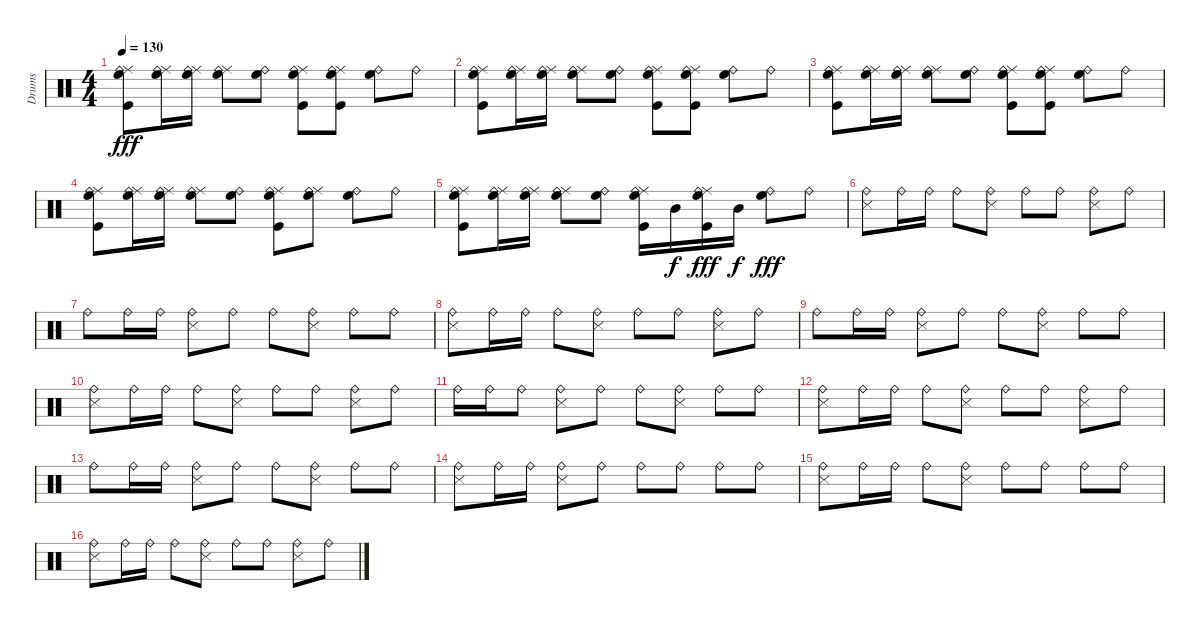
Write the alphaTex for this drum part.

\track ("Drums" "Drums") {instrument percussion}
\staff {score}
\articulation defaults
\ts (4 4)
\tempo 130
\clef neutral
\ks c
("Ride (middle)" "High Floor Tom (hit)" "Ride (bell)" "Kick (hit)").8{dy fff} ("Ride (middle)" "High Floor Tom (hit)" "Ride (bell)").16 ("Ride (middle)" "High Floor Tom (hit)" "Ride (bell)").16 ("Ride (middle)" "High Floor Tom (hit)" "Ride (bell)").8 ("High Floor Tom (hit)" "Ride (bell)").8 ("Ride (middle)" "High Floor Tom (hit)" "Ride (bell)" "Kick (hit)").8 ("Ride (middle)" "High Floor Tom (hit)" "Ride (bell)" "Kick (hit)").8 ("High Floor Tom (hit)" "Ride (bell)").8 "Ride (bell)".8 |
("Ride (middle)" "High Floor Tom (hit)" "Ride (bell)" "Kick (hit)").8 ("Ride (middle)" "High Floor Tom (hit)" "Ride (bell)").16 ("Ride (middle)" "High Floor Tom (hit)" "Ride (bell)").16 ("Ride (middle)" "High Floor Tom (hit)" "Ride (bell)").8 ("High Floor Tom (hit)" "Ride (bell)").8 ("Ride (middle)" "High Floor Tom (hit)" "Ride (bell)" "Kick (hit)").8 ("Ride (middle)" "High Floor Tom (hit)" "Ride (bell)" "Kick (hit)").8 ("High Floor Tom (hit)" "Ride (bell)").8 "Ride (bell)".8 |
("Ride (middle)" "High Floor Tom (hit)" "Ride (bell)" "Kick (hit)").8 ("Ride (middle)" "High Floor Tom (hit)" "Ride (bell)").16 ("Ride (middle)" "High Floor Tom (hit)" "Ride (bell)").16 ("Ride (middle)" "High Floor Tom (hit)" "Ride (bell)").8 ("High Floor Tom (hit)" "Ride (bell)").8 ("Ride (middle)" "High Floor Tom (hit)" "Ride (bell)" "Kick (hit)").8 ("Ride (middle)" "High Floor Tom (hit)" "Ride (bell)" "Kick (hit)").8 ("High Floor Tom (hit)" "Ride (bell)").8 "Ride (bell)".8 |
("Ride (middle)" "High Floor Tom (hit)" "Ride (bell)" "Kick (hit)").8 ("Ride (middle)" "High Floor Tom (hit)" "Ride (bell)").16 ("Ride (middle)" "High Floor Tom (hit)" "Ride (bell)").16 ("Ride (middle)" "High Floor Tom (hit)" "Ride (bell)").8 ("High Floor Tom (hit)" "Ride (bell)").8 ("Ride (middle)" "High Floor Tom (hit)" "Ride (bell)" "Kick (hit)").8 ("Ride (middle)" "High Floor Tom (hit)" "Ride (bell)").8 ("High Floor Tom (hit)" "Ride (bell)").8 "Ride (bell)".8 |
("Ride (middle)" "High Floor Tom (hit)" "Ride (bell)" "Kick (hit)").8 ("Ride (middle)" "High Floor Tom (hit)" "Ride (bell)").16 ("Ride (middle)" "High Floor Tom (hit)" "Ride (bell)").16 ("Ride (middle)" "High Floor Tom (hit)" "Ride (bell)").8 ("High Floor Tom (hit)" "Ride (bell)").8 ("Ride (middle)" "High Floor Tom (hit)" "Ride (bell)" "Kick (hit)").16 "Mid Tom (hit)".16{dy f} ("Ride (middle)" "High Floor Tom (hit)" "Ride (bell)" "Kick (hit)").16{dy fff} "Mid Tom (hit)".16{dy f} ("High Floor Tom (hit)" "Ride (bell)").8{dy fff} "Ride (bell)".8 |
("Ride (bell)" "Snare (side stick) 3").8 "Ride (bell)".16 "Ride (bell)".16 "Ride (bell)".8 ("Ride (bell)" "Snare (side stick) 3").8 "Ride (bell)".8 "Ride (bell)".8 ("Ride (bell)" "Snare (side stick) 3").8 "Ride (bell)".8 |
"Ride (bell)".8 "Ride (bell)".16 "Ride (bell)".16 ("Ride (bell)" "Snare (side stick) 3").8 "Ride (bell)".8 "Ride (bell)".8 ("Ride (bell)" "Snare (side stick) 3").8 "Ride (bell)".8 "Ride (bell)".8 |
("Ride (bell)" "Snare (side stick) 3").8 "Ride (bell)".16 "Ride (bell)".16 "Ride (bell)".8 ("Ride (bell)" "Snare (side stick) 3").8 "Ride (bell)".8 "Ride (bell)".8 ("Ride (bell)" "Snare (side stick) 3").8 "Ride (bell)".8 |
"Ride (bell)".8 "Ride (bell)".16 "Ride (bell)".16 ("Ride (bell)" "Snare (side stick) 3").8 "Ride (bell)".8 "Ride (bell)".8 ("Ride (bell)" "Snare (side stick) 3").8 "Ride (bell)".8 "Ride (bell)".8 |
("Ride (bell)" "Snare (side stick) 3").8 "Ride (bell)".16 "Ride (bell)".16 "Ride (bell)".8 ("Ride (bell)" "Snare (side stick) 3").8 "Ride (bell)".8 "Ride (bell)".8 ("Ride (bell)" "Snare (side stick) 3").8 "Ride (bell)".8 |
"Ride (bell)".16 "Ride (bell)".16 "Ride (bell)".8 ("Ride (bell)" "Snare (side stick) 3").8 "Ride (bell)".8 "Ride (bell)".8 ("Ride (bell)" "Snare (side stick) 3").8 "Ride (bell)".8 "Ride (bell)".8 |
("Ride (bell)" "Snare (side stick) 3").8 "Ride (bell)".16 "Ride (bell)".16 "Ride (bell)".8 ("Ride (bell)" "Snare (side stick) 3").8 "Ride (bell)".8 "Ride (bell)".8 ("Ride (bell)" "Snare (side stick) 3").8 "Ride (bell)".8 |
"Ride (bell)".8 "Ride (bell)".16 "Ride (bell)".16 ("Ride (bell)" "Snare (side stick) 3").8 "Ride (bell)".8 "Ride (bell)".8 ("Ride (bell)" "Snare (side stick) 3").8 "Ride (bell)".8 "Ride (bell)".8 |
("Ride (bell)" "Snare (side stick) 3").8 "Ride (bell)".16 "Ride (bell)".16 ("Ride (bell)" "Snare (side stick) 3").8 "Ride (bell)".8 "Ride (bell)".8 "Ride (bell)".8 "Ride (bell)".8 "Ride (bell)".8 |
("Ride (bell)" "Snare (side stick) 3").8 "Ride (bell)".16 "Ride (bell)".16 "Ride (bell)".8 ("Ride (bell)" "Snare (side stick) 3").8 "Ride (bell)".8 "Ride (bell)".8 "Ride (bell)".8 "Ride (bell)".8 |
("Ride (bell)" "Snare (side stick) 3").8 "Ride (bell)".16 "Ride (bell)".16 "Ride (bell)".8 ("Ride (bell)" "Snare (side stick) 3").8 "Ride (bell)".8 "Ride (bell)".8 ("Ride (bell)" "Snare (side stick) 3").8 "Ride (bell)".8
